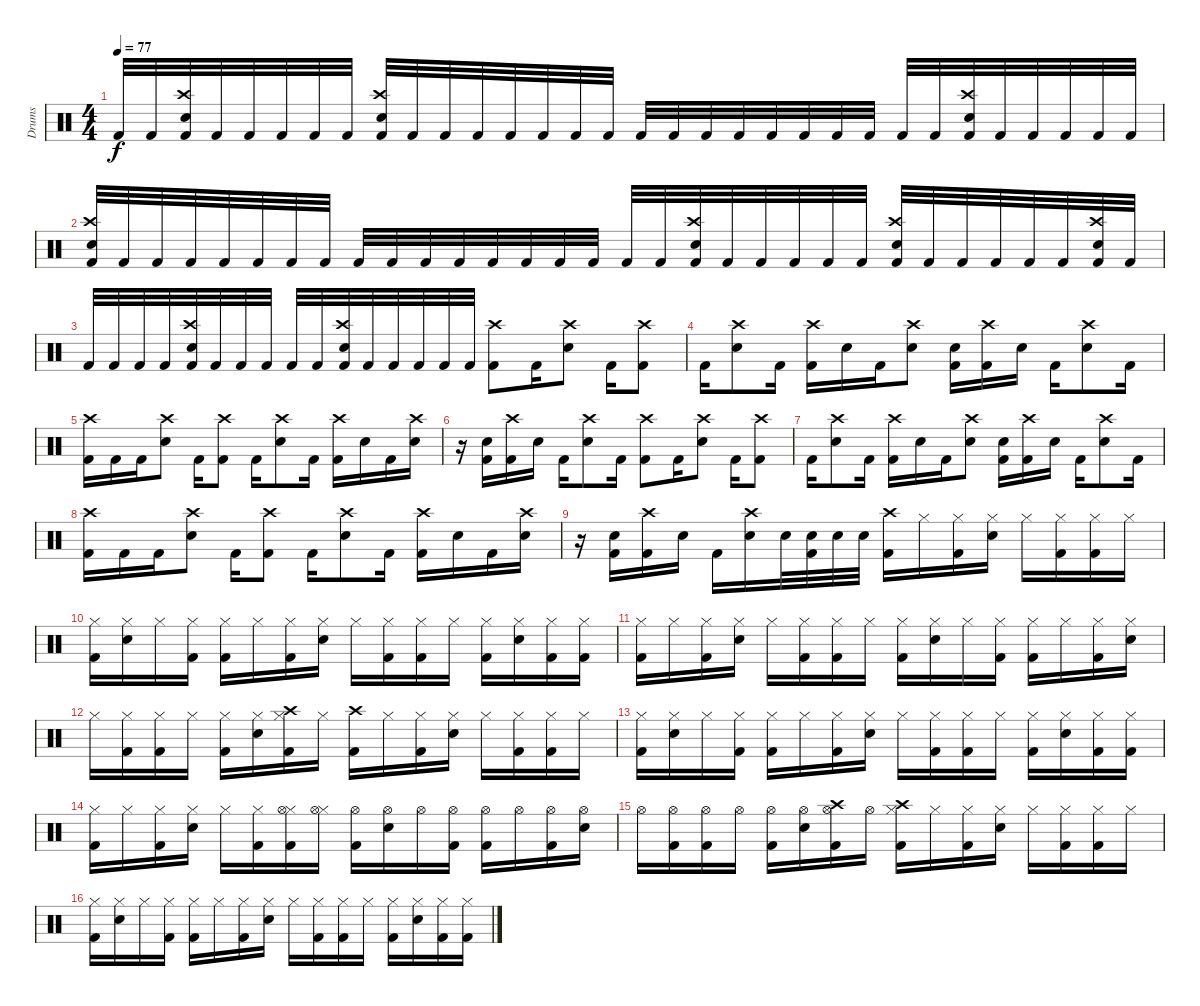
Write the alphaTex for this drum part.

\track ("Drums" "Drums") {instrument percussion}
\staff {score}
\articulation defaults
\ts (4 4)
\tempo 77
\clef neutral
\ks c "Kick (hit) 2".32{dy f} "Kick (hit) 2".32
("Crash high (hit)" "Snare (hit) 2" "Kick (hit) 2").32 "Kick (hit) 2".32 "Kick (hit) 2".32 "Kick (hit) 2".32 "Kick (hit) 2".32 "Kick (hit) 2".32 ("Crash high (hit)" "Snare (hit) 2" "Kick (hit) 2").32 "Kick (hit) 2".32 "Kick (hit) 2".32 "Kick (hit) 2".32 "Kick (hit) 2".32 "Kick (hit) 2".32 "Kick (hit) 2".32 "Kick (hit) 2".32 "Kick (hit) 2".32 "Kick (hit) 2".32 "Kick (hit) 2".32 "Kick (hit) 2".32 "Kick (hit) 2".32 "Kick (hit) 2".32 "Kick (hit) 2".32 "Kick (hit) 2".32 "Kick (hit) 2".32 "Kick (hit) 2".32 ("Crash high (hit)" "Snare (hit) 2" "Kick (hit) 2").32 "Kick (hit) 2".32 "Kick (hit) 2".32 "Kick (hit) 2".32 "Kick (hit) 2".32 "Kick (hit) 2".32 |
("Crash high (hit)" "Snare (hit) 2" "Kick (hit) 2").32 "Kick (hit) 2".32 "Kick (hit) 2".32 "Kick (hit) 2".32 "Kick (hit) 2".32 "Kick (hit) 2".32 "Kick (hit) 2".32 "Kick (hit) 2".32 "Kick (hit) 2".32 "Kick (hit) 2".32 "Kick (hit) 2".32 "Kick (hit) 2".32 "Kick (hit) 2".32 "Kick (hit) 2".32 "Kick (hit) 2".32 "Kick (hit) 2".32 "Kick (hit) 2".32 "Kick (hit) 2".32 ("Crash high (hit)" "Snare (hit) 2" "Kick (hit) 2").32 "Kick (hit) 2".32 "Kick (hit) 2".32 "Kick (hit) 2".32 "Kick (hit) 2".32 "Kick (hit) 2".32 ("Crash high (hit)" "Snare (hit) 2" "Kick (hit) 2").32 "Kick (hit) 2".32 "Kick (hit) 2".32 "Kick (hit) 2".32 "Kick (hit) 2".32 "Kick (hit) 2".32 ("Crash high (hit)" "Snare (hit) 2" "Kick (hit) 2").32 "Kick (hit) 2".32 |
"Kick (hit) 2".32 "Kick (hit) 2".32 "Kick (hit) 2".32 "Kick (hit) 2".32 ("Crash high (hit)" "Snare (hit) 2" "Kick (hit) 2").32 "Kick (hit) 2".32 "Kick (hit) 2".32 "Kick (hit) 2".32 "Kick (hit) 2".32 "Kick (hit) 2".32 ("Crash high (hit)" "Snare (hit) 2" "Kick (hit) 2").32 "Kick (hit) 2".32 "Kick (hit) 2".32 "Kick (hit) 2".32 "Kick (hit) 2".32 "Kick (hit) 2".32 ("Crash high (hit)" "Kick (hit) 2").8 "Kick (hit) 2".16 ("Crash high (hit)" "Snare (hit) 2").8 "Kick (hit) 2".16 ("Crash high (hit)" "Kick (hit) 2").8 |
"Kick (hit) 2".16 ("Crash high (hit)" "Snare (hit) 2").8 "Kick (hit) 2".16 ("Crash high (hit)" "Kick (hit) 2").16 "Snare (hit) 2".16 "Kick (hit) 2".16 ("Crash high (hit)" "Snare (hit) 2").8 ("Snare (hit) 2" "Kick (hit) 2").16 ("Crash high (hit)" "Kick (hit) 2").16 "Snare (hit) 2".16 "Kick (hit) 2".16 ("Crash high (hit)" "Snare (hit) 2").8 "Kick (hit) 2".16 |
("Crash high (hit)" "Kick (hit) 2").16 "Kick (hit) 2".16 "Kick (hit) 2".16 ("Crash high (hit)" "Snare (hit) 2").8 "Kick (hit) 2".16 ("Crash high (hit)" "Kick (hit) 2").8 "Kick (hit) 2".16 ("Crash high (hit)" "Snare (hit) 2").8 "Kick (hit) 2".16 ("Crash high (hit)" "Kick (hit) 2").16 "Snare (hit) 2".16 "Kick (hit) 2".16 ("Crash high (hit)" "Snare (hit) 2").16 |
r.16 ("Snare (hit) 2" "Kick (hit) 2").16 ("Crash high (hit)" "Kick (hit) 2").16 "Snare (hit) 2".16 "Kick (hit) 2".16 ("Crash high (hit)" "Snare (hit) 2").8 "Kick (hit) 2".16 ("Crash high (hit)" "Kick (hit) 2").8 "Kick (hit) 2".16 ("Crash high (hit)" "Snare (hit) 2").8 "Kick (hit) 2".16 ("Crash high (hit)" "Kick (hit) 2").8 |
"Kick (hit) 2".16 ("Crash high (hit)" "Snare (hit) 2").8 "Kick (hit) 2".16 ("Crash high (hit)" "Kick (hit) 2").16 "Snare (hit) 2".16 "Kick (hit) 2".16 ("Crash high (hit)" "Snare (hit) 2").8 ("Snare (hit) 2" "Kick (hit) 2").16 ("Crash high (hit)" "Kick (hit) 2").16 "Snare (hit) 2".16 "Kick (hit) 2".16 ("Crash high (hit)" "Snare (hit) 2").8 "Kick (hit) 2".16 |
("Crash high (hit)" "Kick (hit) 2").16 "Kick (hit) 2".16 "Kick (hit) 2".16 ("Crash high (hit)" "Snare (hit) 2").8 "Kick (hit) 2".16 ("Crash high (hit)" "Kick (hit) 2").8 "Kick (hit) 2".16 ("Crash high (hit)" "Snare (hit) 2").8 "Kick (hit) 2".16 ("Crash high (hit)" "Kick (hit) 2").16 "Snare (hit) 2".16 "Kick (hit) 2".16 ("Crash high (hit)" "Snare (hit) 2").16 |
r.16 ("Snare (hit) 2" "Kick (hit) 2").16 ("Crash high (hit)" "Kick (hit) 2").16 "Snare (hit) 2".16 "Kick (hit) 2".16 ("Crash high (hit)" "Snare (hit) 2").16 "Snare (hit) 2".32 ("Snare (hit) 2" "Kick (hit) 2").32 "Snare (hit) 2".32 "Snare (hit) 2".32 ("Crash high (hit)" "Kick (hit) 2").16 "Hi-Hat (closed)".16 ("Hi-Hat (closed)" "Kick (hit) 2").16 ("Hi-Hat (closed)" "Snare (hit) 2").16 "Hi-Hat (closed)".16 ("Hi-Hat (closed)" "Kick (hit) 2").16 ("Hi-Hat (closed)" "Kick (hit) 2").16 "Hi-Hat (closed)".16 |
("Hi-Hat (closed)" "Kick (hit) 2").16 ("Hi-Hat (closed)" "Snare (hit) 2").16 "Hi-Hat (closed)".16 ("Hi-Hat (closed)" "Kick (hit) 2").16 ("Hi-Hat (closed)" "Kick (hit) 2").16 "Hi-Hat (closed)".16 ("Hi-Hat (closed)" "Kick (hit) 2").16 ("Hi-Hat (closed)" "Snare (hit) 2").16 "Hi-Hat (closed)".16 ("Hi-Hat (closed)" "Kick (hit) 2").16 ("Hi-Hat (closed)" "Kick (hit) 2").16 "Hi-Hat (closed)".16 ("Hi-Hat (closed)" "Kick (hit) 2").16 ("Hi-Hat (closed)" "Snare (hit) 2").16 ("Hi-Hat (closed)" "Kick (hit) 2").16 ("Hi-Hat (closed)" "Kick (hit) 2").16 |
("Hi-Hat (closed)" "Kick (hit) 2").16 "Hi-Hat (closed)".16 ("Hi-Hat (closed)" "Kick (hit) 2").16 ("Hi-Hat (closed)" "Snare (hit) 2").16 "Hi-Hat (closed)".16 ("Hi-Hat (closed)" "Kick (hit) 2").16 ("Hi-Hat (closed)" "Kick (hit) 2").16 "Hi-Hat (closed)".16 ("Hi-Hat (closed)" "Kick (hit) 2").16 ("Hi-Hat (closed)" "Snare (hit) 2").16 "Hi-Hat (closed)".16 ("Hi-Hat (closed)" "Kick (hit) 2").16 ("Hi-Hat (closed)" "Kick (hit) 2").16 "Hi-Hat (closed)".16 ("Hi-Hat (closed)" "Kick (hit) 2").16 ("Hi-Hat (closed)" "Snare (hit) 2").16 |
"Hi-Hat (closed)".16 ("Hi-Hat (closed)" "Kick (hit) 2").16 ("Hi-Hat (closed)" "Kick (hit) 2").16 "Hi-Hat (closed)".16 ("Hi-Hat (closed)" "Kick (hit) 2").16 ("Hi-Hat (closed)" "Snare (hit) 2").16 ("Crash high (hit)" "Hi-Hat (closed)" "Kick (hit) 2").16 "Hi-Hat (closed)".16 ("Crash high (hit)" "Kick (hit) 2").16 "Hi-Hat (closed)".16 ("Hi-Hat (closed)" "Kick (hit) 2").16 ("Hi-Hat (closed)" "Snare (hit) 2").16 "Hi-Hat (closed)".16 ("Hi-Hat (closed)" "Kick (hit) 2").16 ("Hi-Hat (closed)" "Kick (hit) 2").16 "Hi-Hat (closed)".16 |
("Hi-Hat (closed)" "Kick (hit) 2").16 ("Hi-Hat (closed)" "Snare (hit) 2").16 "Hi-Hat (closed)".16 ("Hi-Hat (closed)" "Kick (hit) 2").16 ("Hi-Hat (closed)" "Kick (hit) 2").16 "Hi-Hat (closed)".16 ("Hi-Hat (closed)" "Kick (hit) 2").16 ("Hi-Hat (closed)" "Snare (hit) 2").16 "Hi-Hat (closed)".16 ("Hi-Hat (closed)" "Kick (hit) 2").16 ("Hi-Hat (closed)" "Kick (hit) 2").16 "Hi-Hat (closed)".16 ("Hi-Hat (closed)" "Kick (hit) 2").16 ("Hi-Hat (closed)" "Snare (hit) 2").16 ("Hi-Hat (closed)" "Kick (hit) 2").16 ("Hi-Hat (closed)" "Kick (hit) 2").16 |
("Hi-Hat (closed)" "Kick (hit) 2").16 "Hi-Hat (closed)".16 ("Hi-Hat (closed)" "Kick (hit) 2").16 ("Hi-Hat (closed)" "Snare (hit) 2").16 "Hi-Hat (closed)".16 ("Hi-Hat (closed)" "Kick (hit) 2").16 ("Hi-Hat (closed)" "Hi-Hat (open)" "Kick (hit) 2").16 ("Hi-Hat (closed)" "Hi-Hat (open)").16 ("Hi-Hat (open)" "Kick (hit) 2").16 ("Hi-Hat (open)" "Snare (hit) 2").16 "Hi-Hat (open)".16 ("Hi-Hat (open)" "Kick (hit) 2").16 ("Hi-Hat (open)" "Kick (hit) 2").16 "Hi-Hat (open)".16 ("Hi-Hat (open)" "Kick (hit) 2").16 ("Hi-Hat (open)" "Snare (hit) 2").16 |
"Hi-Hat (open)".16 ("Hi-Hat (open)" "Kick (hit) 2").16 ("Hi-Hat (open)" "Kick (hit) 2").16 "Hi-Hat (open)".16 ("Hi-Hat (open)" "Kick (hit) 2").16 ("Hi-Hat (open)" "Snare (hit) 2").16 ("Crash high (hit)" "Hi-Hat (open)" "Kick (hit) 2").16 "Hi-Hat (open)".16 ("Crash high (hit)" "Hi-Hat (closed)" "Kick (hit) 2").16 "Hi-Hat (closed)".16 ("Hi-Hat (closed)" "Kick (hit) 2").16 ("Hi-Hat (closed)" "Snare (hit) 2").16 "Hi-Hat (closed)".16 ("Hi-Hat (closed)" "Kick (hit) 2").16 ("Hi-Hat (closed)" "Kick (hit) 2").16 "Hi-Hat (closed)".16 |
("Hi-Hat (closed)" "Kick (hit) 2").16 ("Hi-Hat (closed)" "Snare (hit) 2").16 "Hi-Hat (closed)".16 ("Hi-Hat (closed)" "Kick (hit) 2").16 ("Hi-Hat (closed)" "Kick (hit) 2").16 "Hi-Hat (closed)".16 ("Hi-Hat (closed)" "Kick (hit) 2").16 ("Hi-Hat (closed)" "Snare (hit) 2").16 "Hi-Hat (closed)".16 ("Hi-Hat (closed)" "Kick (hit) 2").16 ("Hi-Hat (closed)" "Kick (hit) 2").16 "Hi-Hat (closed)".16 ("Hi-Hat (closed)" "Kick (hit) 2").16 ("Hi-Hat (closed)" "Snare (hit) 2").16 ("Hi-Hat (closed)" "Kick (hit) 2").16 ("Hi-Hat (closed)" "Kick (hit) 2").16
